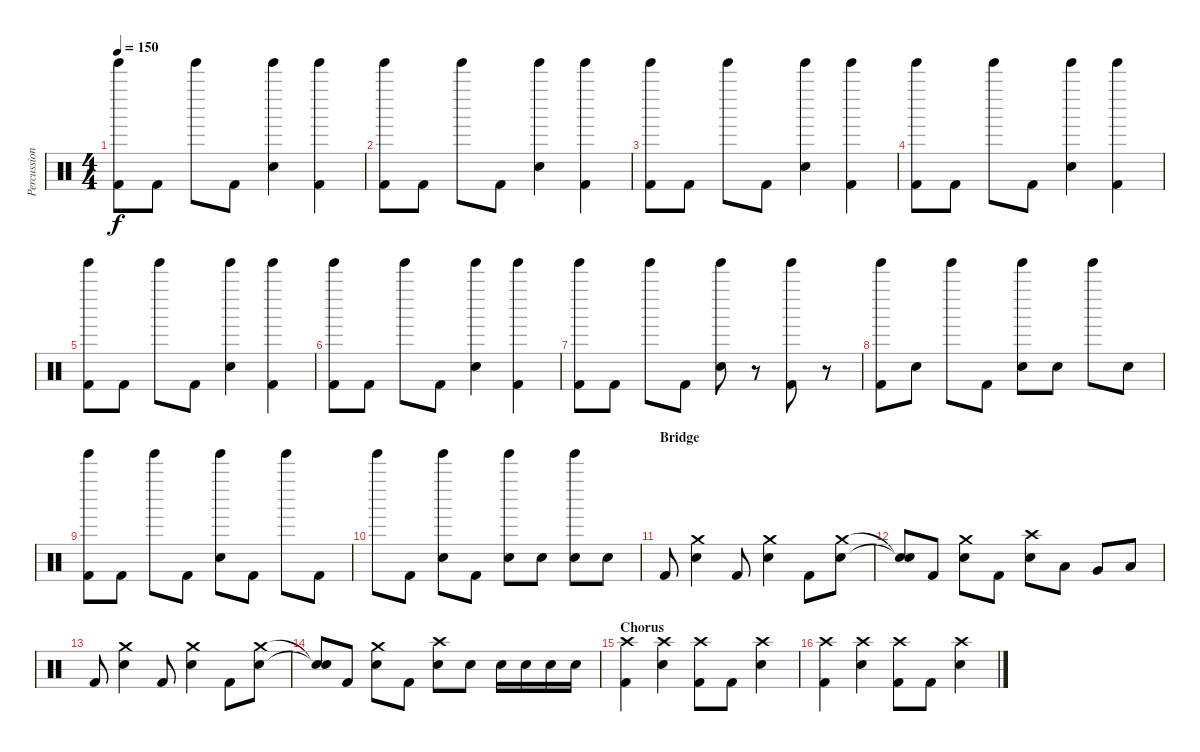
\track ("Percussion" "Percussion") {instrument percussion}
\staff {score}
\articulation defaults
\ts (4 4)
\tempo 150
\clef neutral
\ks c
("Tinkle Bell (hit)" "Kick (hit) 2").8{dy f} "Kick (hit) 2".8 "Tinkle Bell (hit)".8 "Kick (hit) 2".8 ("Tinkle Bell (hit)" "Electric Snare (hit)").4 ("Tinkle Bell (hit)" "Kick (hit) 2").4 |
("Tinkle Bell (hit)" "Kick (hit) 2").8 "Kick (hit) 2".8 "Tinkle Bell (hit)".8 "Kick (hit) 2".8 ("Tinkle Bell (hit)" "Electric Snare (hit)").4 ("Tinkle Bell (hit)" "Kick (hit) 2").4 |
("Tinkle Bell (hit)" "Kick (hit) 2").8 "Kick (hit) 2".8 "Tinkle Bell (hit)".8 "Kick (hit) 2".8 ("Tinkle Bell (hit)" "Electric Snare (hit)").4 ("Tinkle Bell (hit)" "Kick (hit) 2").4 |
("Tinkle Bell (hit)" "Kick (hit) 2").8 "Kick (hit) 2".8 "Tinkle Bell (hit)".8 "Kick (hit) 2".8 ("Tinkle Bell (hit)" "Electric Snare (hit)").4 ("Tinkle Bell (hit)" "Kick (hit) 2").4 |
("Tinkle Bell (hit)" "Kick (hit) 2").8 "Kick (hit) 2".8 "Tinkle Bell (hit)".8 "Kick (hit) 2".8 ("Tinkle Bell (hit)" "Electric Snare (hit)").4 ("Tinkle Bell (hit)" "Kick (hit) 2").4 |
("Tinkle Bell (hit)" "Kick (hit) 2").8 "Kick (hit) 2".8 "Tinkle Bell (hit)".8 "Kick (hit) 2".8 ("Tinkle Bell (hit)" "Electric Snare (hit)").4 ("Tinkle Bell (hit)" "Kick (hit) 2").4 |
("Tinkle Bell (hit)" "Kick (hit) 2").8 "Kick (hit) 2".8 "Tinkle Bell (hit)".8 "Kick (hit) 2".8 ("Tinkle Bell (hit)" "Electric Snare (hit)").8 r.8 ("Tinkle Bell (hit)" "Kick (hit) 2").8 r.8 |
("Tinkle Bell (hit)" "Kick (hit) 2").8 "Electric Snare (hit)".8 "Tinkle Bell (hit)".8 "Kick (hit) 2".8 ("Tinkle Bell (hit)" "Electric Snare (hit)").8 "Electric Snare (hit)".8 "Tinkle Bell (hit)".8 "Electric Snare (hit)".8 |
("Tinkle Bell (hit)" "Kick (hit) 2").8 "Kick (hit) 2".8 "Tinkle Bell (hit)".8 "Kick (hit) 2".8 ("Tinkle Bell (hit)" "Electric Snare (hit)").8 "Kick (hit) 2".8 "Tinkle Bell (hit)".8 "Kick (hit) 2".8 |
"Tinkle Bell (hit)".8 "Kick (hit) 2".8 ("Tinkle Bell (hit)" "Electric Snare (hit)").8 "Kick (hit) 2".8 ("Tinkle Bell (hit)" "Electric Snare (hit)").8 "Electric Snare (hit)".8 ("Tinkle Bell (hit)" "Electric Snare (hit)").8 "Electric Snare (hit)".8 |
\section ("" "Bridge")
"Kick (hit) 2".8 ("Crash medium (hit)" "Electric Snare (hit)").4 "Kick (hit) 2".8 ("Crash medium (hit)" "Electric Snare (hit)").4 "Kick (hit) 2".8 ("Crash medium (hit)" "Electric Snare (hit)").8 |
("Snare (hit)"{t} "Snare (hit)"{t}).8 "Kick (hit) 2".8 ("Crash medium (hit)" "Electric Snare (hit)").8 "Kick (hit) 2".8 ("Crash high (hit)" "Electric Snare (hit)").8 "Low Tom (hit)".8 "Very Low Tom (hit)".8 "Low Floor Tom (hit)".8 |
"Kick (hit) 2".8 ("Crash medium (hit)" "Electric Snare (hit)").4 "Kick (hit) 2".8 ("Crash medium (hit)" "Electric Snare (hit)").4 "Kick (hit) 2".8 ("Crash medium (hit)" "Electric Snare (hit)").8 |
("Snare (hit)"{t} "Snare (hit)"{t}).8 "Kick (hit) 2".8 ("Crash medium (hit)" "Electric Snare (hit)").8 "Kick (hit) 2".8 ("Crash high (hit)" "Electric Snare (hit)").8 "Electric Snare (hit)".8 "Electric Snare (hit)".16 "Electric Snare (hit)".16 "Electric Snare (hit)".16 "Electric Snare (hit)".16 |
\section ("" "Chorus")
("Crash high (hit)" "Kick (hit) 2").4 ("Crash high (hit)" "Electric Snare (hit)").4 ("Crash high (hit)" "Kick (hit) 2").8 "Kick (hit) 2".8 ("Crash high (hit)" "Electric Snare (hit)").4 |
("Crash high (hit)" "Kick (hit) 2").4 ("Crash high (hit)" "Electric Snare (hit)").4 ("Crash high (hit)" "Kick (hit) 2").8 "Kick (hit) 2".8 ("Crash high (hit)" "Electric Snare (hit)").4
